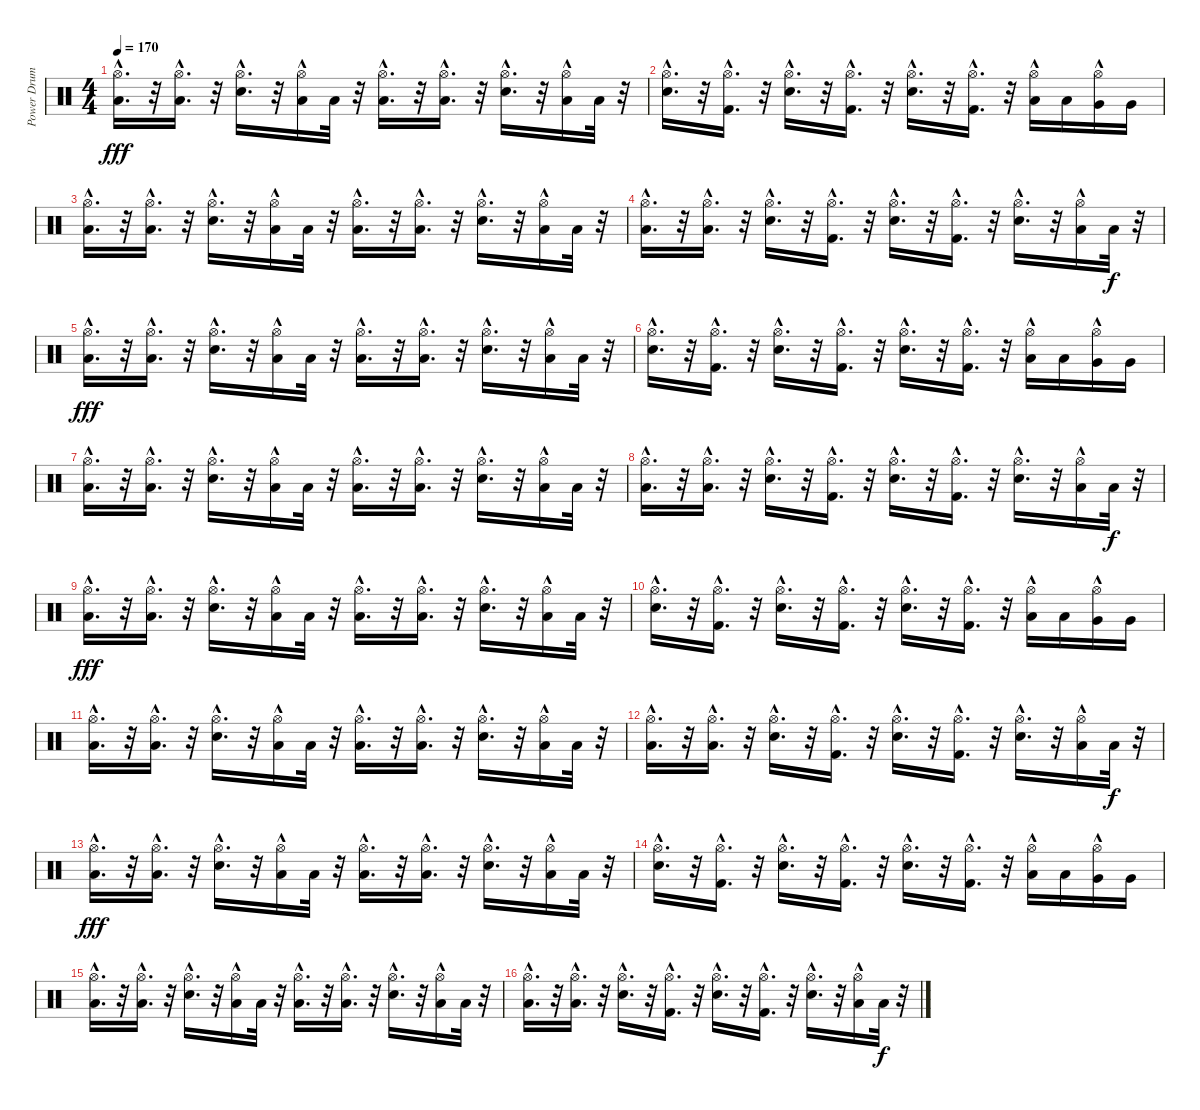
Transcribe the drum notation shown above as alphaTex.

\track ("Power Drums " "Power Drum") {instrument percussion}
\staff {score}
\articulation defaults
\ts (4 4)
\tempo 170
\clef neutral
\ks c
("Hi-Hat (open)"{hac} "Low Floor Tom (hit)"{hac}).16{d dy fff} r.32 ("Hi-Hat (open)"{hac} "Low Floor Tom (hit)"{hac}).16{d} r.32 ("Snare (hit) 2"{hac} "Hi-Hat (open)"{hac}).16{d} r.32 ("Hi-Hat (open)"{hac} "Low Floor Tom (hit)").16 "Low Floor Tom (hit)".32 r.32 ("Hi-Hat (open)"{hac} "Low Floor Tom (hit)"{hac}).16{d} r.32 ("Hi-Hat (open)"{hac} "Low Floor Tom (hit)"{hac}).16{d} r.32 ("Snare (hit) 2"{hac} "Hi-Hat (open)"{hac}).16{d} r.32 ("Hi-Hat (open)"{hac} "Low Floor Tom (hit)").16 "Low Floor Tom (hit)".32 r.32 |
("Snare (hit) 2"{hac} "Hi-Hat (open)"{hac}).16{d} r.32 ("Kick (hit) 2"{hac} "Hi-Hat (open)"{hac}).16{d} r.32 ("Snare (hit) 2"{hac} "Hi-Hat (open)"{hac}).16{d} r.32 ("Kick (hit) 2"{hac} "Hi-Hat (open)"{hac}).16{d} r.32 ("Snare (hit) 2"{hac} "Hi-Hat (open)"{hac}).16{d} r.32 ("Kick (hit) 2"{hac} "Hi-Hat (open)"{hac}).16{d} r.32 ("Hi-Hat (open)"{hac} "Low Tom (hit)").16 "Low Tom (hit)".16 ("Hi-Hat (open)"{hac} "Very Low Tom (hit)").16 "Very Low Tom (hit)".16 |
("Hi-Hat (open)"{hac} "Low Floor Tom (hit)"{hac}).16{d} r.32 ("Hi-Hat (open)"{hac} "Low Floor Tom (hit)"{hac}).16{d} r.32 ("Snare (hit) 2"{hac} "Hi-Hat (open)"{hac}).16{d} r.32 ("Low Floor Tom (hit)" "Hi-Hat (open)"{hac}).16 "Low Floor Tom (hit)".32 r.32 ("Hi-Hat (open)"{hac} "Low Floor Tom (hit)"{hac}).16{d} r.32 ("Hi-Hat (open)"{hac} "Low Floor Tom (hit)"{hac}).16{d} r.32 ("Snare (hit) 2"{hac} "Hi-Hat (open)"{hac}).16{d} r.32 ("Hi-Hat (open)"{hac} "Low Floor Tom (hit)").16 "Low Floor Tom (hit)".32 r.32 |
("Hi-Hat (open)"{hac} "Low Floor Tom (hit)"{hac}).16{d} r.32 ("Hi-Hat (open)"{hac} "Low Floor Tom (hit)"{hac}).16{d} r.32 ("Snare (hit) 2"{hac} "Hi-Hat (open)"{hac}).16{d} r.32 ("Kick (hit) 2"{hac} "Hi-Hat (open)"{hac}).16{d} r.32 ("Snare (hit) 2"{hac} "Hi-Hat (open)"{hac}).16{d} r.32 ("Kick (hit) 2"{hac} "Hi-Hat (open)"{hac}).16{d} r.32 ("Snare (hit) 2"{hac} "Hi-Hat (open)"{hac}).16{d} r.32 ("Hi-Hat (open)"{hac} "Low Floor Tom (hit)").16 "Low Floor Tom (hit)".32{dy f} r.32 |
("Hi-Hat (open)"{hac} "Low Floor Tom (hit)"{hac}).16{d dy fff} r.32 ("Hi-Hat (open)"{hac} "Low Floor Tom (hit)"{hac}).16{d} r.32 ("Snare (hit) 2"{hac} "Hi-Hat (open)"{hac}).16{d} r.32 ("Hi-Hat (open)"{hac} "Low Floor Tom (hit)").16 "Low Floor Tom (hit)".32 r.32 ("Hi-Hat (open)"{hac} "Low Floor Tom (hit)"{hac}).16{d} r.32 ("Hi-Hat (open)"{hac} "Low Floor Tom (hit)"{hac}).16{d} r.32 ("Snare (hit) 2"{hac} "Hi-Hat (open)"{hac}).16{d} r.32 ("Hi-Hat (open)"{hac} "Low Floor Tom (hit)").16 "Low Floor Tom (hit)".32 r.32 |
("Snare (hit) 2"{hac} "Hi-Hat (open)"{hac}).16{d} r.32 ("Kick (hit) 2"{hac} "Hi-Hat (open)"{hac}).16{d} r.32 ("Snare (hit) 2"{hac} "Hi-Hat (open)"{hac}).16{d} r.32 ("Kick (hit) 2"{hac} "Hi-Hat (open)"{hac}).16{d} r.32 ("Snare (hit) 2"{hac} "Hi-Hat (open)"{hac}).16{d} r.32 ("Kick (hit) 2"{hac} "Hi-Hat (open)"{hac}).16{d} r.32 ("Hi-Hat (open)"{hac} "Low Tom (hit)").16 "Low Tom (hit)".16 ("Hi-Hat (open)"{hac} "Very Low Tom (hit)").16 "Very Low Tom (hit)".16 |
("Hi-Hat (open)"{hac} "Low Floor Tom (hit)"{hac}).16{d} r.32 ("Hi-Hat (open)"{hac} "Low Floor Tom (hit)"{hac}).16{d} r.32 ("Snare (hit) 2"{hac} "Hi-Hat (open)"{hac}).16{d} r.32 ("Hi-Hat (open)"{hac} "Low Floor Tom (hit)").16 "Low Floor Tom (hit)".32 r.32 ("Hi-Hat (open)"{hac} "Low Floor Tom (hit)"{hac}).16{d} r.32 ("Hi-Hat (open)"{hac} "Low Floor Tom (hit)"{hac}).16{d} r.32 ("Snare (hit) 2"{hac} "Hi-Hat (open)"{hac}).16{d} r.32 ("Hi-Hat (open)"{hac} "Low Floor Tom (hit)").16 "Low Floor Tom (hit)".32 r.32 |
("Hi-Hat (open)"{hac} "Low Floor Tom (hit)"{hac}).16{d} r.32 ("Hi-Hat (open)"{hac} "Low Floor Tom (hit)"{hac}).16{d} r.32 ("Snare (hit) 2"{hac} "Hi-Hat (open)"{hac}).16{d} r.32 ("Kick (hit) 2"{hac} "Hi-Hat (open)"{hac}).16{d} r.32 ("Snare (hit) 2"{hac} "Hi-Hat (open)"{hac}).16{d} r.32 ("Kick (hit) 2"{hac} "Hi-Hat (open)"{hac}).16{d} r.32 ("Snare (hit) 2"{hac} "Hi-Hat (open)"{hac}).16{d} r.32 ("Hi-Hat (open)"{hac} "Low Floor Tom (hit)").16 "Low Floor Tom (hit)".32{dy f} r.32 |
("Hi-Hat (open)"{hac} "Low Floor Tom (hit)"{hac}).16{d dy fff} r.32 ("Hi-Hat (open)"{hac} "Low Floor Tom (hit)"{hac}).16{d} r.32 ("Snare (hit) 2"{hac} "Hi-Hat (open)"{hac}).16{d} r.32 ("Hi-Hat (open)"{hac} "Low Floor Tom (hit)").16 "Low Floor Tom (hit)".32 r.32 ("Hi-Hat (open)"{hac} "Low Floor Tom (hit)"{hac}).16{d} r.32 ("Hi-Hat (open)"{hac} "Low Floor Tom (hit)"{hac}).16{d} r.32 ("Snare (hit) 2"{hac} "Hi-Hat (open)"{hac}).16{d} r.32 ("Hi-Hat (open)"{hac} "Low Floor Tom (hit)").16 "Low Floor Tom (hit)".32 r.32 |
("Snare (hit) 2"{hac} "Hi-Hat (open)"{hac}).16{d} r.32 ("Kick (hit) 2"{hac} "Hi-Hat (open)"{hac}).16{d} r.32 ("Snare (hit) 2"{hac} "Hi-Hat (open)"{hac}).16{d} r.32 ("Kick (hit) 2"{hac} "Hi-Hat (open)"{hac}).16{d} r.32 ("Snare (hit) 2"{hac} "Hi-Hat (open)"{hac}).16{d} r.32 ("Kick (hit) 2"{hac} "Hi-Hat (open)"{hac}).16{d} r.32 ("Hi-Hat (open)"{hac} "Low Tom (hit)").16 "Low Tom (hit)".16 ("Hi-Hat (open)"{hac} "Very Low Tom (hit)").16 "Very Low Tom (hit)".16 |
("Hi-Hat (open)"{hac} "Low Floor Tom (hit)"{hac}).16{d} r.32 ("Hi-Hat (open)"{hac} "Low Floor Tom (hit)"{hac}).16{d} r.32 ("Snare (hit) 2"{hac} "Hi-Hat (open)"{hac}).16{d} r.32 ("Hi-Hat (open)"{hac} "Low Floor Tom (hit)").16 "Low Floor Tom (hit)".32 r.32 ("Hi-Hat (open)"{hac} "Low Floor Tom (hit)"{hac}).16{d} r.32 ("Hi-Hat (open)"{hac} "Low Floor Tom (hit)"{hac}).16{d} r.32 ("Snare (hit) 2"{hac} "Hi-Hat (open)"{hac}).16{d} r.32 ("Hi-Hat (open)"{hac} "Low Floor Tom (hit)").16 "Low Floor Tom (hit)".32 r.32 |
("Hi-Hat (open)"{hac} "Low Floor Tom (hit)"{hac}).16{d} r.32 ("Hi-Hat (open)"{hac} "Low Floor Tom (hit)"{hac}).16{d} r.32 ("Snare (hit) 2"{hac} "Hi-Hat (open)"{hac}).16{d} r.32 ("Kick (hit) 2"{hac} "Hi-Hat (open)"{hac}).16{d} r.32 ("Snare (hit) 2"{hac} "Hi-Hat (open)"{hac}).16{d} r.32 ("Kick (hit) 2"{hac} "Hi-Hat (open)"{hac}).16{d} r.32 ("Snare (hit) 2"{hac} "Hi-Hat (open)"{hac}).16{d} r.32 ("Hi-Hat (open)"{hac} "Low Floor Tom (hit)").16 "Low Floor Tom (hit)".32{dy f} r.32 |
("Hi-Hat (open)"{hac} "Low Floor Tom (hit)"{hac}).16{d dy fff} r.32 ("Hi-Hat (open)"{hac} "Low Floor Tom (hit)"{hac}).16{d} r.32 ("Snare (hit) 2"{hac} "Hi-Hat (open)"{hac}).16{d} r.32 ("Hi-Hat (open)"{hac} "Low Floor Tom (hit)").16 "Low Floor Tom (hit)".32 r.32 ("Hi-Hat (open)"{hac} "Low Floor Tom (hit)"{hac}).16{d} r.32 ("Hi-Hat (open)"{hac} "Low Floor Tom (hit)"{hac}).16{d} r.32 ("Snare (hit) 2"{hac} "Hi-Hat (open)"{hac}).16{d} r.32 ("Hi-Hat (open)"{hac} "Low Floor Tom (hit)").16 "Low Floor Tom (hit)".32 r.32 |
("Snare (hit) 2"{hac} "Hi-Hat (open)"{hac}).16{d} r.32 ("Kick (hit) 2"{hac} "Hi-Hat (open)"{hac}).16{d} r.32 ("Snare (hit) 2"{hac} "Hi-Hat (open)"{hac}).16{d} r.32 ("Kick (hit) 2"{hac} "Hi-Hat (open)"{hac}).16{d} r.32 ("Snare (hit) 2"{hac} "Hi-Hat (open)"{hac}).16{d} r.32 ("Kick (hit) 2"{hac} "Hi-Hat (open)"{hac}).16{d} r.32 ("Hi-Hat (open)"{hac} "Low Tom (hit)").16 "Low Tom (hit)".16 ("Hi-Hat (open)"{hac} "Very Low Tom (hit)").16 "Very Low Tom (hit)".16 |
("Hi-Hat (open)"{hac} "Low Floor Tom (hit)"{hac}).16{d} r.32 ("Hi-Hat (open)"{hac} "Low Floor Tom (hit)"{hac}).16{d} r.32 ("Snare (hit) 2"{hac} "Hi-Hat (open)"{hac}).16{d} r.32 ("Hi-Hat (open)"{hac} "Low Floor Tom (hit)").16 "Low Floor Tom (hit)".32 r.32 ("Hi-Hat (open)"{hac} "Low Floor Tom (hit)"{hac}).16{d} r.32 ("Hi-Hat (open)"{hac} "Low Floor Tom (hit)"{hac}).16{d} r.32 ("Snare (hit) 2"{hac} "Hi-Hat (open)"{hac}).16{d} r.32 ("Hi-Hat (open)"{hac} "Low Floor Tom (hit)").16 "Low Floor Tom (hit)".32 r.32 |
("Hi-Hat (open)"{hac} "Low Floor Tom (hit)"{hac}).16{d} r.32 ("Hi-Hat (open)"{hac} "Low Floor Tom (hit)"{hac}).16{d} r.32 ("Snare (hit) 2"{hac} "Hi-Hat (open)"{hac}).16{d} r.32 ("Kick (hit) 2"{hac} "Hi-Hat (open)"{hac}).16{d} r.32 ("Snare (hit) 2"{hac} "Hi-Hat (open)"{hac}).16{d} r.32 ("Kick (hit) 2"{hac} "Hi-Hat (open)"{hac}).16{d} r.32 ("Snare (hit) 2"{hac} "Hi-Hat (open)"{hac}).16{d} r.32 ("Hi-Hat (open)"{hac} "Low Floor Tom (hit)").16 "Low Floor Tom (hit)".32{dy f} r.32
